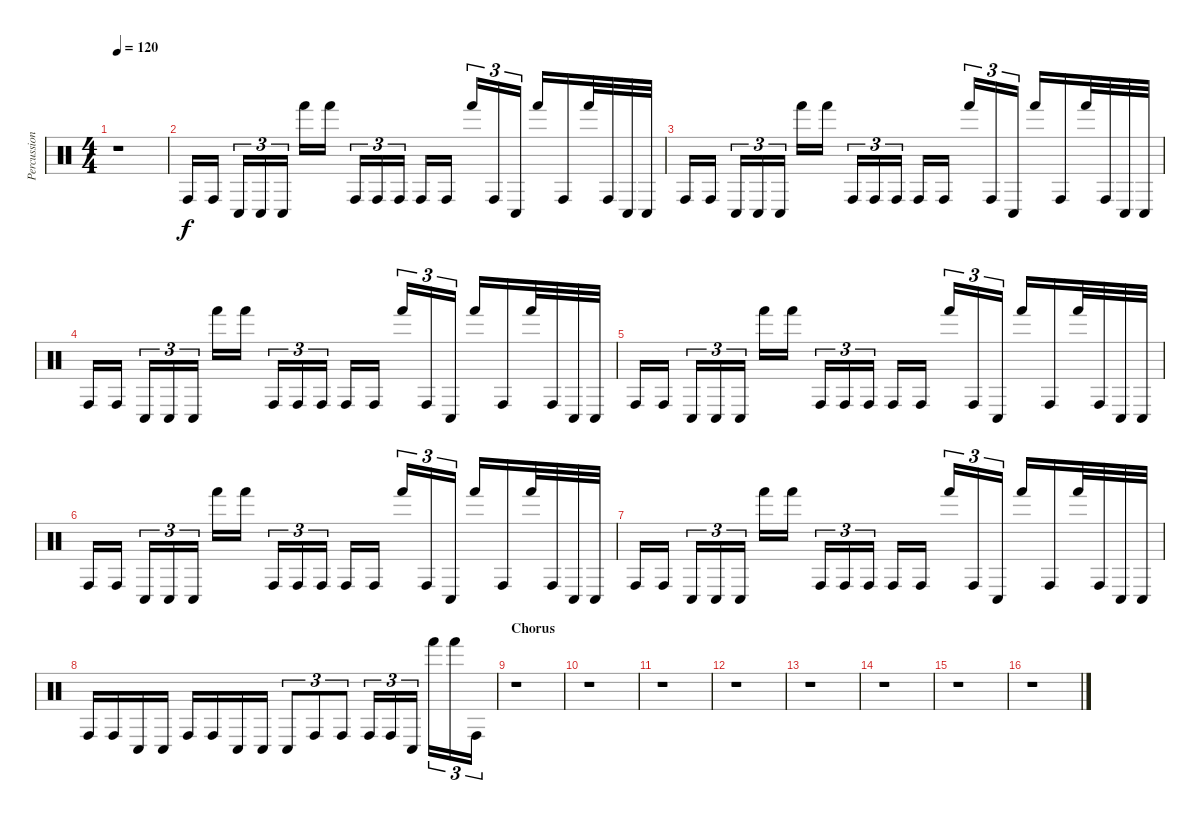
\track ("Percussion" "Percussion") {instrument percussion}
\staff {score}
\articulation defaults
\ts (4 4)
\tempo 120
\clef neutral
\ks c
r.1{dy f} |
"Conga high (hit)".16 "Conga high (hit)".16 "Conga low (hit)".16{tu (3 2)} "Conga low (hit)".16{tu (3 2)} "Conga low (hit)".16{tu (3 2)} "Hand (hit)".16 "Hand (hit)".16 "Conga high (hit)".16{tu (3 2)} "Conga high (hit)".16{tu (3 2)} "Conga high (hit)".16{tu (3 2)} "Conga high (hit)".16 "Conga high (hit)".16 "Hand (hit)".16{tu (3 2)} "Conga high (hit)".16{tu (3 2)} "Conga low (hit)".16{tu (3 2)} "Hand (hit)".16 "Conga high (hit)".16 "Hand (hit)".32 "Conga high (hit)".32 "Conga low (hit)".32 "Conga low (hit)".32 |
"Conga high (hit)".16 "Conga high (hit)".16 "Conga low (hit)".16{tu (3 2)} "Conga low (hit)".16{tu (3 2)} "Conga low (hit)".16{tu (3 2)} "Hand (hit)".16 "Hand (hit)".16 "Conga high (hit)".16{tu (3 2)} "Conga high (hit)".16{tu (3 2)} "Conga high (hit)".16{tu (3 2)} "Conga high (hit)".16 "Conga high (hit)".16 "Hand (hit)".16{tu (3 2)} "Conga high (hit)".16{tu (3 2)} "Conga low (hit)".16{tu (3 2)} "Hand (hit)".16 "Conga high (hit)".16 "Hand (hit)".32 "Conga high (hit)".32 "Conga low (hit)".32 "Conga low (hit)".32 |
"Conga high (hit)".16 "Conga high (hit)".16 "Conga low (hit)".16{tu (3 2)} "Conga low (hit)".16{tu (3 2)} "Conga low (hit)".16{tu (3 2)} "Hand (hit)".16 "Hand (hit)".16 "Conga high (hit)".16{tu (3 2)} "Conga high (hit)".16{tu (3 2)} "Conga high (hit)".16{tu (3 2)} "Conga high (hit)".16 "Conga high (hit)".16 "Hand (hit)".16{tu (3 2)} "Conga high (hit)".16{tu (3 2)} "Conga low (hit)".16{tu (3 2)} "Hand (hit)".16 "Conga high (hit)".16 "Hand (hit)".32 "Conga high (hit)".32 "Conga low (hit)".32 "Conga low (hit)".32 |
"Conga high (hit)".16 "Conga high (hit)".16 "Conga low (hit)".16{tu (3 2)} "Conga low (hit)".16{tu (3 2)} "Conga low (hit)".16{tu (3 2)} "Hand (hit)".16 "Hand (hit)".16 "Conga high (hit)".16{tu (3 2)} "Conga high (hit)".16{tu (3 2)} "Conga high (hit)".16{tu (3 2)} "Conga high (hit)".16 "Conga high (hit)".16 "Hand (hit)".16{tu (3 2)} "Conga high (hit)".16{tu (3 2)} "Conga low (hit)".16{tu (3 2)} "Hand (hit)".16 "Conga high (hit)".16 "Hand (hit)".32 "Conga high (hit)".32 "Conga low (hit)".32 "Conga low (hit)".32 |
"Conga high (hit)".16 "Conga high (hit)".16 "Conga low (hit)".16{tu (3 2)} "Conga low (hit)".16{tu (3 2)} "Conga low (hit)".16{tu (3 2)} "Hand (hit)".16 "Hand (hit)".16 "Conga high (hit)".16{tu (3 2)} "Conga high (hit)".16{tu (3 2)} "Conga high (hit)".16{tu (3 2)} "Conga high (hit)".16 "Conga high (hit)".16 "Hand (hit)".16{tu (3 2)} "Conga high (hit)".16{tu (3 2)} "Conga low (hit)".16{tu (3 2)} "Hand (hit)".16 "Conga high (hit)".16 "Hand (hit)".32 "Conga high (hit)".32 "Conga low (hit)".32 "Conga low (hit)".32 |
"Conga high (hit)".16 "Conga high (hit)".16 "Conga low (hit)".16{tu (3 2)} "Conga low (hit)".16{tu (3 2)} "Conga low (hit)".16{tu (3 2)} "Hand (hit)".16 "Hand (hit)".16 "Conga high (hit)".16{tu (3 2)} "Conga high (hit)".16{tu (3 2)} "Conga high (hit)".16{tu (3 2)} "Conga high (hit)".16 "Conga high (hit)".16 "Hand (hit)".16{tu (3 2)} "Conga high (hit)".16{tu (3 2)} "Conga low (hit)".16{tu (3 2)} "Hand (hit)".16 "Conga high (hit)".16 "Hand (hit)".32 "Conga high (hit)".32 "Conga low (hit)".32 "Conga low (hit)".32 |
"Conga high (hit)".16 "Conga high (hit)".16 "Conga low (hit)".16 "Conga low (hit)".16 "Conga high (hit)".16 "Conga high (hit)".16 "Conga low (hit)".16 "Conga low (hit)".16 "Conga low (hit)".8{tu (3 2)} "Conga high (hit)".8{tu (3 2)} "Conga high (hit)".8{tu (3 2)} "Conga high (hit)".16{tu (3 2)} "Conga high (hit)".16{tu (3 2)} "Conga low (hit)".16{tu (3 2)} "Hand (hit)".16{tu (3 2)} "Hand (hit)".16{tu (3 2)} "Conga high (hit)".16{tu (3 2)} |
\section ("" "Chorus")
r.1 |
r.1 |
r.1 |
r.1 |
r.1 |
r.1 |
r.1 |
r.1
